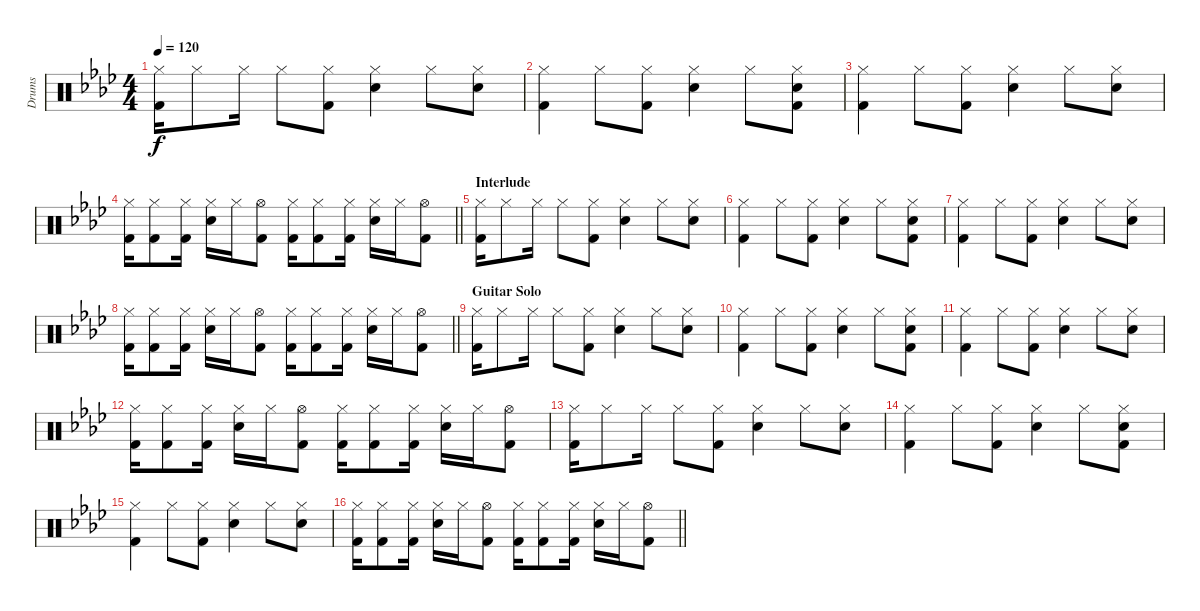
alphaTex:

\track ("Drums" "Drums") {instrument percussion}
\staff {score}
\articulation defaults
\ts (4 4)
\tempo 120
\clef neutral
\ks fminor
("Hi-Hat (closed)" "Kick (hit) 2").16{dy f} "Hi-Hat (closed)".8 "Hi-Hat (closed)".16 "Hi-Hat (closed)".8 ("Hi-Hat (closed)" "Kick (hit) 2").8 ("Hi-Hat (closed)" "Snare (hit) 2").4 "Hi-Hat (closed)".8 ("Hi-Hat (closed)" "Snare (hit) 2").8 |
("Hi-Hat (closed)" "Kick (hit) 2").4 "Hi-Hat (closed)".8 ("Hi-Hat (closed)" "Kick (hit) 2").8 ("Hi-Hat (closed)" "Snare (hit) 2").4 "Hi-Hat (closed)".8 ("Hi-Hat (closed)" "Snare (hit) 2" "Kick (hit) 2").8 |
("Hi-Hat (closed)" "Kick (hit) 2").4 "Hi-Hat (closed)".8 ("Hi-Hat (closed)" "Kick (hit) 2").8 ("Hi-Hat (closed)" "Snare (hit) 2").4 "Hi-Hat (closed)".8 ("Hi-Hat (closed)" "Snare (hit) 2").8 |
\barLineRight lightlight
("Hi-Hat (closed)" "Kick (hit) 2").16 ("Hi-Hat (closed)" "Kick (hit) 2").8 ("Hi-Hat (closed)" "Kick (hit) 2").16 ("Hi-Hat (closed)" "Snare (hit) 2").16 "Hi-Hat (closed)".16 ("Hi-Hat (open)" "Kick (hit) 2").8 ("Hi-Hat (closed)" "Kick (hit) 2").16 ("Hi-Hat (closed)" "Kick (hit) 2").8 ("Hi-Hat (closed)" "Kick (hit) 2").16 ("Hi-Hat (closed)" "Snare (hit) 2").16 "Hi-Hat (closed)".16 ("Hi-Hat (open)" "Kick (hit) 2").8 |
\section ("" "Interlude")
("Hi-Hat (closed)" "Kick (hit) 2").16 "Hi-Hat (closed)".8 "Hi-Hat (closed)".16 "Hi-Hat (closed)".8 ("Hi-Hat (closed)" "Kick (hit) 2").8 ("Hi-Hat (closed)" "Snare (hit) 2").4 "Hi-Hat (closed)".8 ("Hi-Hat (closed)" "Snare (hit) 2").8 |
("Hi-Hat (closed)" "Kick (hit) 2").4 "Hi-Hat (closed)".8 ("Hi-Hat (closed)" "Kick (hit) 2").8 ("Hi-Hat (closed)" "Snare (hit) 2").4 "Hi-Hat (closed)".8 ("Hi-Hat (closed)" "Snare (hit) 2" "Kick (hit) 2").8 |
("Hi-Hat (closed)" "Kick (hit) 2").4 "Hi-Hat (closed)".8 ("Hi-Hat (closed)" "Kick (hit) 2").8 ("Hi-Hat (closed)" "Snare (hit) 2").4 "Hi-Hat (closed)".8 ("Hi-Hat (closed)" "Snare (hit) 2").8 |
\barLineRight lightlight
("Hi-Hat (closed)" "Kick (hit) 2").16 ("Hi-Hat (closed)" "Kick (hit) 2").8 ("Hi-Hat (closed)" "Kick (hit) 2").16 ("Hi-Hat (closed)" "Snare (hit) 2").16 "Hi-Hat (closed)".16 ("Hi-Hat (open)" "Kick (hit) 2").8 ("Hi-Hat (closed)" "Kick (hit) 2").16 ("Hi-Hat (closed)" "Kick (hit) 2").8 ("Hi-Hat (closed)" "Kick (hit) 2").16 ("Hi-Hat (closed)" "Snare (hit) 2").16 "Hi-Hat (closed)".16 ("Hi-Hat (open)" "Kick (hit) 2").8 |
\section ("" "Guitar Solo")
("Hi-Hat (closed)" "Kick (hit) 2").16 "Hi-Hat (closed)".8 "Hi-Hat (closed)".16 "Hi-Hat (closed)".8 ("Hi-Hat (closed)" "Kick (hit) 2").8 ("Hi-Hat (closed)" "Snare (hit) 2").4 "Hi-Hat (closed)".8 ("Hi-Hat (closed)" "Snare (hit) 2").8 |
("Hi-Hat (closed)" "Kick (hit) 2").4 "Hi-Hat (closed)".8 ("Hi-Hat (closed)" "Kick (hit) 2").8 ("Hi-Hat (closed)" "Snare (hit) 2").4 "Hi-Hat (closed)".8 ("Hi-Hat (closed)" "Snare (hit) 2" "Kick (hit) 2").8 |
("Hi-Hat (closed)" "Kick (hit) 2").4 "Hi-Hat (closed)".8 ("Hi-Hat (closed)" "Kick (hit) 2").8 ("Hi-Hat (closed)" "Snare (hit) 2").4 "Hi-Hat (closed)".8 ("Hi-Hat (closed)" "Snare (hit) 2").8 |
("Hi-Hat (closed)" "Kick (hit) 2").16 ("Hi-Hat (closed)" "Kick (hit) 2").8 ("Hi-Hat (closed)" "Kick (hit) 2").16 ("Hi-Hat (closed)" "Snare (hit) 2").16 "Hi-Hat (closed)".16 ("Hi-Hat (open)" "Kick (hit) 2").8 ("Hi-Hat (closed)" "Kick (hit) 2").16 ("Hi-Hat (closed)" "Kick (hit) 2").8 ("Hi-Hat (closed)" "Kick (hit) 2").16 ("Hi-Hat (closed)" "Snare (hit) 2").16 "Hi-Hat (closed)".16 ("Hi-Hat (open)" "Kick (hit) 2").8 |
("Hi-Hat (closed)" "Kick (hit) 2").16 "Hi-Hat (closed)".8 "Hi-Hat (closed)".16 "Hi-Hat (closed)".8 ("Hi-Hat (closed)" "Kick (hit) 2").8 ("Hi-Hat (closed)" "Snare (hit) 2").4 "Hi-Hat (closed)".8 ("Hi-Hat (closed)" "Snare (hit) 2").8 |
("Hi-Hat (closed)" "Kick (hit) 2").4 "Hi-Hat (closed)".8 ("Hi-Hat (closed)" "Kick (hit) 2").8 ("Hi-Hat (closed)" "Snare (hit) 2").4 "Hi-Hat (closed)".8 ("Hi-Hat (closed)" "Snare (hit) 2" "Kick (hit) 2").8 |
("Hi-Hat (closed)" "Kick (hit) 2").4 "Hi-Hat (closed)".8 ("Hi-Hat (closed)" "Kick (hit) 2").8 ("Hi-Hat (closed)" "Snare (hit) 2").4 "Hi-Hat (closed)".8 ("Hi-Hat (closed)" "Snare (hit) 2").8 |
\barLineRight lightlight
("Hi-Hat (closed)" "Kick (hit) 2").16 ("Hi-Hat (closed)" "Kick (hit) 2").8 ("Hi-Hat (closed)" "Kick (hit) 2").16 ("Hi-Hat (closed)" "Snare (hit) 2").16 "Hi-Hat (closed)".16 ("Hi-Hat (open)" "Kick (hit) 2").8 ("Hi-Hat (closed)" "Kick (hit) 2").16 ("Hi-Hat (closed)" "Kick (hit) 2").8 ("Hi-Hat (closed)" "Kick (hit) 2").16 ("Hi-Hat (closed)" "Snare (hit) 2").16 "Hi-Hat (closed)".16 ("Hi-Hat (open)" "Kick (hit) 2").8
